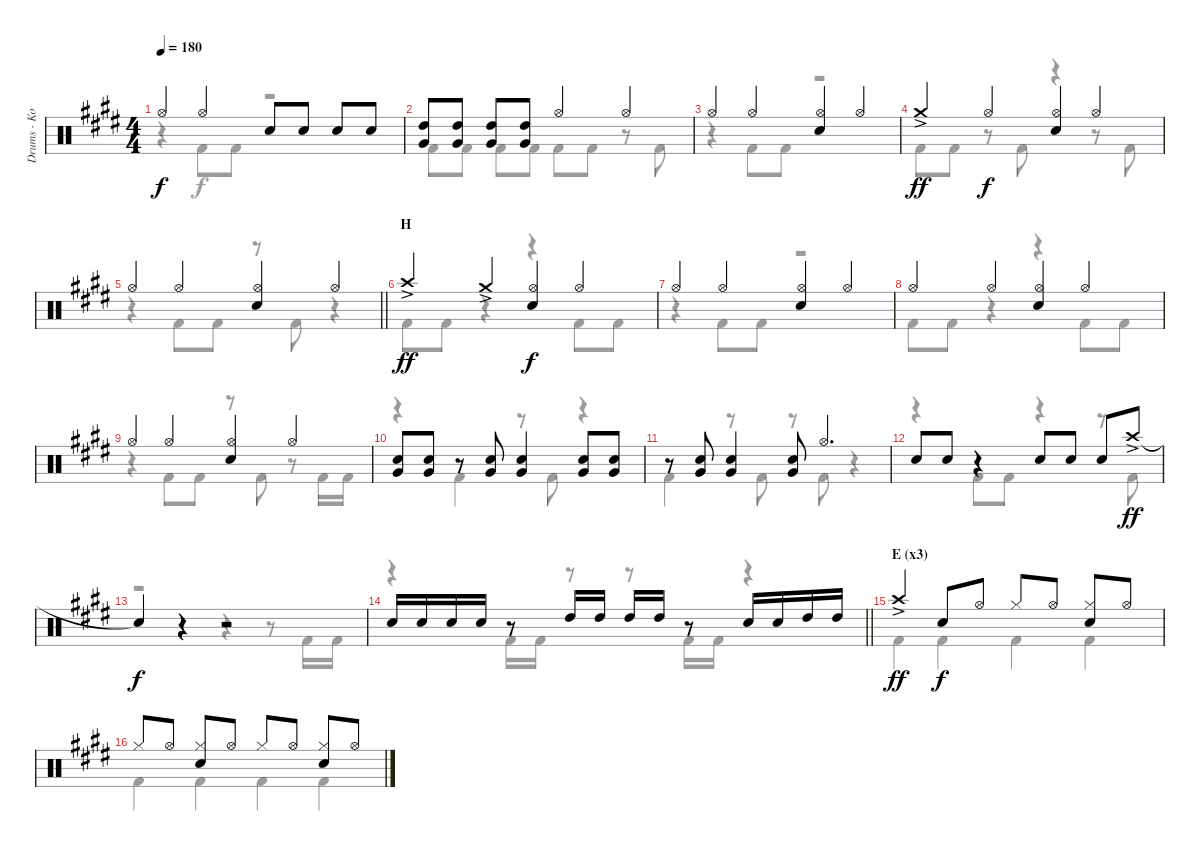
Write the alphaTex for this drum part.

\track ("Drums - Ko-Ki" "Drums - Ko") {instrument percussion}
\staff {score}
\articulation defaults
\voice
\ts (4 4)
\tempo 180
\clef neutral
\ks e "Hi-Hat (open)".4{dy f} "Hi-Hat (open)".4 "Snare (hit) 2".8 "Snare (hit) 2".8 "Snare (hit) 2".8 "Snare (hit) 2".8
|
("High Tom (hit)" "Very Low Tom (hit)").8 ("High Tom (hit)" "Very Low Tom (hit)").8 ("High Tom (hit)" "Very Low Tom (hit)").8 ("High Tom (hit)" "Very Low Tom (hit)").8 "Hi-Hat (open)".4 "Hi-Hat (open)".4 |
"Hi-Hat (open)".4 "Hi-Hat (open)".4 ("Hi-Hat (open)" "Snare (hit) 2").4 "Hi-Hat (open)".4 |
"Crash medium (hit)"{ac}.4{dy ff} "Hi-Hat (open)".4{dy f} ("Hi-Hat (open)" "Snare (hit) 2").4 "Hi-Hat (open)".4 |
\barLineRight lightlight "Hi-Hat (open)".4 "Hi-Hat (open)".4
("Hi-Hat (open)" "Snare (hit) 2").4 "Hi-Hat (open)".4 |
\section ("" "H")
"Crash high (hit)"{ac}.4{dy ff} "Crash medium (hit)"{ac}.4 ("Hi-Hat (open)" "Snare (hit) 2").4{dy f} "Hi-Hat (open)".4 |
"Hi-Hat (open)".4 "Hi-Hat (open)".4 ("Hi-Hat (open)" "Snare (hit) 2").4 "Hi-Hat (open)".4 |
"Hi-Hat (open)".4 "Hi-Hat (open)".4 ("Hi-Hat (open)" "Snare (hit) 2").4 "Hi-Hat (open)".4 |
"Hi-Hat (open)".4 "Hi-Hat (open)".4 ("Hi-Hat (open)" "Snare (hit) 2").4 "Hi-Hat (open)".4 |
("Very Low Tom (hit)" "Snare (hit) 2").8 ("Very Low Tom (hit)" "Snare (hit) 2").8 r.8 ("Very Low Tom (hit)" "Snare (hit) 2").8 ("Very Low Tom (hit)" "Snare (hit) 2").4 ("Very Low Tom (hit)" "Snare (hit) 2").8 ("Very Low Tom (hit)" "Snare (hit) 2").8 |
r.8 ("Very Low Tom (hit)" "Snare (hit) 2").8 ("Very Low Tom (hit)" "Snare (hit) 2").4 ("Very Low Tom (hit)" "Snare (hit) 2").8 "Hi-Hat (open)".4{d} |
"Snare (hit) 2".8 "Snare (hit) 2".8 r.4 "Snare (hit) 2".8 "Snare (hit) 2".8 "Snare (hit) 2".8 "Crash high (hit)"{ac}.8{dy ff} |
"Snare (hit)"{t}.4{dy f} r.4 r.2 |
\barLineRight lightlight "Snare (hit) 2".16 "Snare (hit) 2".16 "Snare (hit) 2".16 "Snare (hit) 2".16
r.8 "High Tom (hit)".16 "High Tom (hit)".16 "High Tom (hit)".16 "High Tom (hit)".16 r.8 "Snare (hit) 2".16 "Snare (hit) 2".16 "High Tom (hit)".16 "High Tom (hit)".16 |
\section ("" "E (x3)")
"Crash high (hit)"{ac}.4{dy ff} "Snare (hit) 2".8{dy f} "Hi-Hat (open)".8 "Hi-Hat (closed)".8 "Hi-Hat (open)".8 ("Hi-Hat (closed)" "Snare (hit) 2").8 "Hi-Hat (open)".8 |
"Hi-Hat (closed)".8 "Hi-Hat (open)".8 ("Hi-Hat (closed)" "Snare (hit) 2").8 "Hi-Hat (open)".8 "Hi-Hat (closed)".8 "Hi-Hat (open)".8 ("Hi-Hat (closed)" "Snare (hit) 2").8 "Hi-Hat (open)".8
\voice
\clef neutral
\ottava regular
\simile none
\ks e
r.4{dy f} "Kick (hit) 2".8 "Kick (hit) 2".8 r.2 |
"Kick (hit) 2".8 "Kick (hit) 2".8 "Kick (hit) 2".8 "Kick (hit) 2".8 "Kick (hit) 2".8 "Kick (hit) 2".8 r.8 "Kick (hit) 2".8 |
r.4 "Kick (hit) 2".8 "Kick (hit) 2".8 r.2 |
"Kick (hit) 2".8 "Kick (hit) 2".8 r.8 "Kick (hit) 2".8 r.4 r.8 "Kick (hit) 2".8 |
\barLineRight lightlight
r.4 "Kick (hit) 2".8 "Kick (hit) 2".8 r.8 "Kick (hit) 2".8 r.4 |
"Kick (hit) 2".8 "Kick (hit) 2".8 r.4 r.4 "Kick (hit) 2".8 "Kick (hit) 2".8 |
r.4 "Kick (hit) 2".8 "Kick (hit) 2".8 r.2 |
"Kick (hit) 2".8 "Kick (hit) 2".8 r.4 r.4 "Kick (hit) 2".8 "Kick (hit) 2".8 |
r.4 "Kick (hit) 2".8 "Kick (hit) 2".8 r.8 "Kick (hit) 2".8 r.8 "Kick (hit) 2".16 "Kick (hit) 2".16 |
r.4 "Kick (hit) 2".4 r.8 "Kick (hit) 2".8 r.4 |
"Kick (hit) 2".4 r.8 "Kick (hit) 2".8 r.8 "Kick (hit) 2".8 r.4 |
r.4 "Kick (hit) 2".8 "Kick (hit) 2".8 r.4 r.8 "Kick (hit) 2".8 |
r.2 r.4 r.8 "Kick (hit) 2".16 "Kick (hit) 2".16 |
\barLineRight lightlight
r.4 "Kick (hit) 2".16 "Kick (hit) 2".16 r.8 r.8 "Kick (hit) 2".16 "Kick (hit) 2".16 r.4 |
"Kick (hit) 2".4 "Kick (hit) 2".4 "Kick (hit) 2".4 "Kick (hit) 2".4 |
"Kick (hit) 2".4 "Kick (hit) 2".4 "Kick (hit) 2".4 "Kick (hit) 2".4
